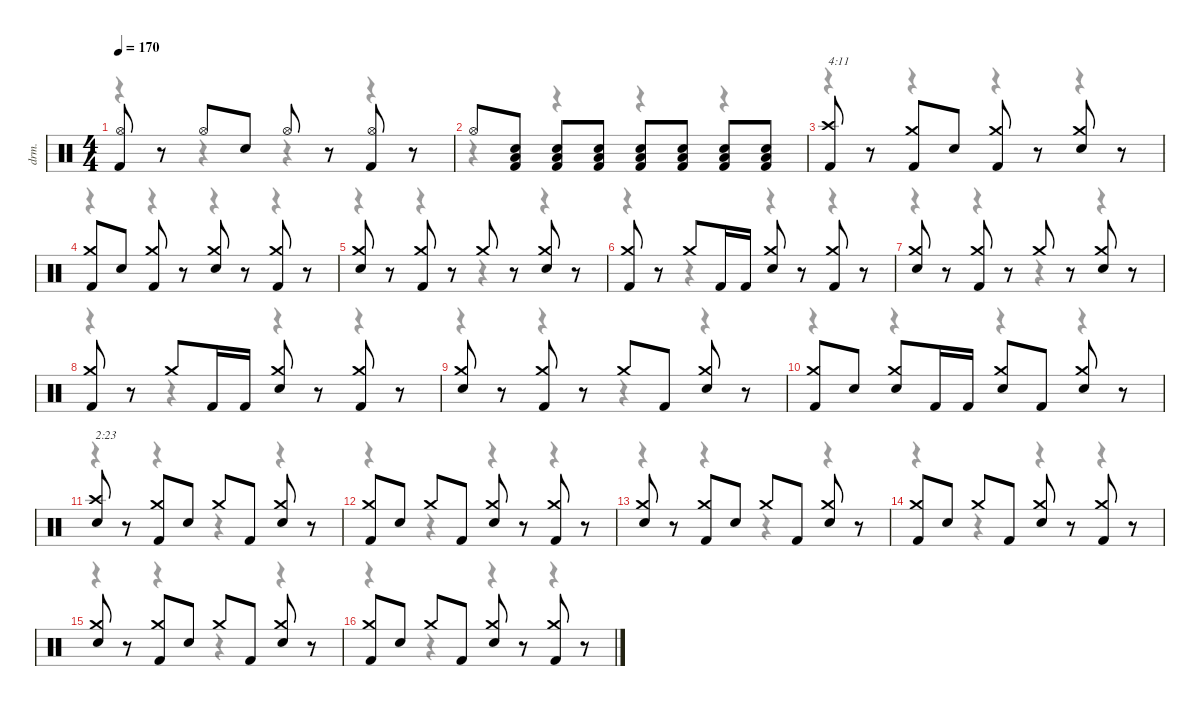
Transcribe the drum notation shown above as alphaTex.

\defaultSystemsLayout 4
\hideDynamics
\bracketExtendMode nobrackets
\otherSystemsTrackNameOrientation horizontal
\track ("Drums" "drm.") {instrument percussion}
\staff {score}
\articulation defaults
\voice
\ts (4 4)
\tempo 170
\clef neutral
\ks c
("Hi-Hat (open)" "Kick (hit) 2").8{dy f beam Up} r.8{beam Up} "Hi-Hat (open)".8{beam Up} "Snare (hit) 2".8{beam Up} "Hi-Hat (open)".8{beam Up} r.8{beam Up} ("Hi-Hat (open)" "Kick (hit) 2").8{beam Up} r.8{beam Up} |
"Hi-Hat (open)".8{beam Up} ("Low Floor Tom (hit)" "Snare (hit) 2" "Kick (hit) 2").8{beam Up} ("Low Floor Tom (hit)" "Snare (hit) 2" "Kick (hit) 2").8{beam Up} ("Low Floor Tom (hit)" "Snare (hit) 2" "Kick (hit) 2").8{beam Up} ("Low Floor Tom (hit)" "Snare (hit) 2" "Kick (hit) 2").8{beam Up} ("Low Floor Tom (hit)" "Snare (hit) 2" "Kick (hit) 2").8{beam Up} ("Low Floor Tom (hit)" "Snare (hit) 2" "Kick (hit) 2").8{beam Up} ("Low Floor Tom (hit)" "Snare (hit) 2" "Kick (hit) 2").8{beam Up} |
("Crash high (hit)" "Kick (hit) 2").8{txt "4:11" beam Up} r.8{beam Up} ("Crash medium (hit)" "Kick (hit) 2").8{beam Up} "Snare (hit) 2".8{beam Up} ("Crash medium (hit)" "Kick (hit) 2").8{beam Up} r.8{beam Up} ("Crash medium (hit)" "Snare (hit) 2").8{beam Up} r.8{beam Up} |
("Crash medium (hit)" "Kick (hit) 2").8{beam Up} "Snare (hit) 2".8{beam Up} ("Crash medium (hit)" "Kick (hit) 2").8{beam Up} r.8{beam Up} ("Crash medium (hit)" "Snare (hit) 2").8{beam Up} r.8{beam Up} ("Crash medium (hit)" "Kick (hit) 2").8{beam Up} r.8{beam Up} |
("Crash medium (hit)" "Snare (hit) 2").8{beam Up} r.8{beam Up} ("Crash medium (hit)" "Kick (hit) 2").8{beam Up} r.8{beam Up} "Crash medium (hit)".8{beam Up} r.8{beam Up} ("Crash medium (hit)" "Snare (hit) 2").8{beam Up} r.8{beam Up} |
("Crash medium (hit)" "Kick (hit) 2").8{beam Up} r.8{beam Up} "Crash medium (hit)".8{beam Up} "Kick (hit) 2".16{beam Up} "Kick (hit) 2".16{beam Up} ("Crash medium (hit)" "Snare (hit) 2").8{beam Up} r.8{beam Up} ("Crash medium (hit)" "Kick (hit) 2").8{beam Up} r.8{beam Up} |
("Crash medium (hit)" "Snare (hit) 2").8{beam Up} r.8{beam Up} ("Crash medium (hit)" "Kick (hit) 2").8{beam Up} r.8{beam Up} "Crash medium (hit)".8{beam Up} r.8{beam Up} ("Crash medium (hit)" "Snare (hit) 2").8{beam Up} r.8{beam Up} |
("Crash medium (hit)" "Kick (hit) 2").8{beam Up} r.8{beam Up} "Crash medium (hit)".8{beam Up} "Kick (hit) 2".16{beam Up} "Kick (hit) 2".16{beam Up} ("Crash medium (hit)" "Snare (hit) 2").8{beam Up} r.8{beam Up} ("Crash medium (hit)" "Kick (hit) 2").8{beam Up} r.8{beam Up} |
("Crash medium (hit)" "Snare (hit) 2").8{beam Up} r.8{beam Up} ("Crash medium (hit)" "Kick (hit) 2").8{beam Up} r.8{beam Up} "Crash medium (hit)".8{beam Up} "Kick (hit) 2".8{beam Up} ("Crash medium (hit)" "Snare (hit) 2").8{beam Up} r.8{beam Up} |
("Crash medium (hit)" "Kick (hit) 2").8{beam Up} "Snare (hit) 2".8{beam Up} ("Crash medium (hit)" "Snare (hit) 2").8{beam Up} "Kick (hit) 2".16{beam Up} "Kick (hit) 2".16{beam Up} ("Crash medium (hit)" "Snare (hit) 2").8{beam Up} "Kick (hit) 2".8{beam Up} ("Crash medium (hit)" "Snare (hit) 2").8{beam Up} r.8{beam Up} |
("Crash high (hit)" "Snare (hit) 2").8{txt "2:23" beam Up} r.8{beam Up} ("Crash medium (hit)" "Kick (hit) 2").8{beam Up} "Snare (hit) 2".8{beam Up} "Crash medium (hit)".8{beam Up} "Kick (hit) 2".8{beam Up} ("Crash medium (hit)" "Snare (hit) 2").8{beam Up} r.8{beam Up} |
("Crash medium (hit)" "Kick (hit) 2").8{beam Up} "Snare (hit) 2".8{beam Up} "Crash medium (hit)".8{beam Up} "Kick (hit) 2".8{beam Up} ("Crash medium (hit)" "Snare (hit) 2").8{beam Up} r.8{beam Up} ("Crash medium (hit)" "Kick (hit) 2").8{beam Up} r.8{beam Up} |
("Crash medium (hit)" "Snare (hit) 2").8{beam Up} r.8{beam Up} ("Crash medium (hit)" "Kick (hit) 2").8{beam Up} "Snare (hit) 2".8{beam Up} "Crash medium (hit)".8{beam Up} "Kick (hit) 2".8{beam Up} ("Crash medium (hit)" "Snare (hit) 2").8{beam Up} r.8{beam Up} |
("Crash medium (hit)" "Kick (hit) 2").8{beam Up} "Snare (hit) 2".8{beam Up} "Crash medium (hit)".8{beam Up} "Kick (hit) 2".8{beam Up} ("Crash medium (hit)" "Snare (hit) 2").8{beam Up} r.8{beam Up} ("Crash medium (hit)" "Kick (hit) 2").8{beam Up} r.8{beam Up} |
("Crash medium (hit)" "Snare (hit) 2").8{beam Up} r.8{beam Up} ("Crash medium (hit)" "Kick (hit) 2").8{beam Up} "Snare (hit) 2".8{beam Up} "Crash medium (hit)".8{beam Up} "Kick (hit) 2".8{beam Up} ("Crash medium (hit)" "Snare (hit) 2").8{beam Up} r.8{beam Up} |
("Crash medium (hit)" "Kick (hit) 2").8{beam Up} "Snare (hit) 2".8{beam Up} "Crash medium (hit)".8{beam Up} "Kick (hit) 2".8{beam Up} ("Crash medium (hit)" "Snare (hit) 2").8{beam Up} r.8{beam Up} ("Crash medium (hit)" "Kick (hit) 2").8{beam Up} r.8{beam Up}
\voice
\clef neutral
\ottava regular
\simile none
\ks c
r.4{dy mf beam Down} r.4{beam Down} r.4{beam Down} r.4{beam Down} |
r.4{beam Down} r.4{beam Down} r.4{beam Down} r.4{beam Down} |
r.4{beam Down} r.4{beam Down} r.4{beam Down} r.4{beam Down} |
r.4{beam Down} r.4{beam Down} r.4{beam Down} r.4{beam Down} |
r.4{beam Down} r.4{beam Down} r.4{beam Down} r.4{beam Down} |
r.4{beam Down} r.4{beam Down} r.4{beam Down} r.4{beam Down} |
r.4{beam Down} r.4{beam Down} r.4{beam Down} r.4{beam Down} |
r.4{beam Down} r.4{beam Down} r.4{beam Down} r.4{beam Down} |
r.4{beam Down} r.4{beam Down} r.4{beam Down} r.4{beam Down} |
r.4{beam Down} r.4{beam Down} r.4{beam Down} r.4{beam Down} |
r.4{beam Down} r.4{beam Down} r.4{beam Down} r.4{beam Down} |
r.4{beam Down} r.4{beam Down} r.4{beam Down} r.4{beam Down} |
r.4{beam Down} r.4{beam Down} r.4{beam Down} r.4{beam Down} |
r.4{beam Down} r.4{beam Down} r.4{beam Down} r.4{beam Down} |
r.4{beam Down} r.4{beam Down} r.4{beam Down} r.4{beam Down} |
r.4{beam Down} r.4{beam Down} r.4{beam Down} r.4{beam Down}
